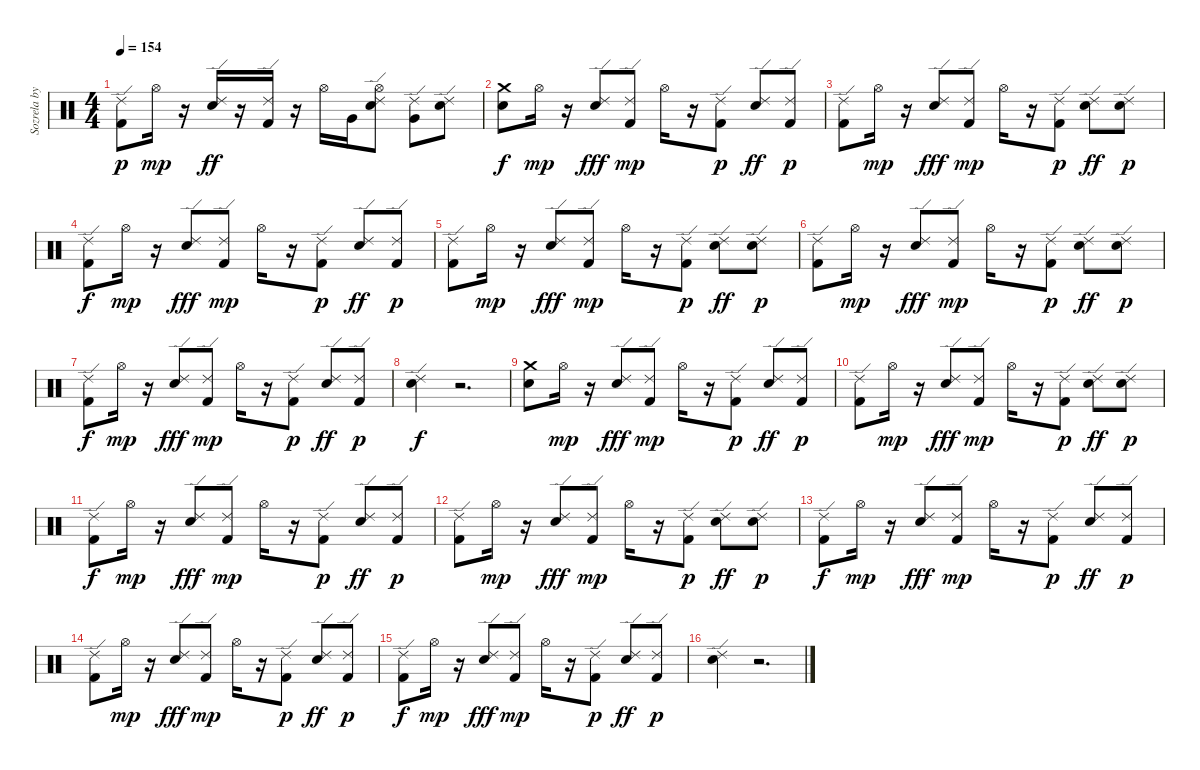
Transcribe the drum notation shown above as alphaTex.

\track ("Sozrela by Anton" "Sozrela by") {instrument percussion}
\staff {score}
\articulation defaults
\ts (4 4)
\tempo 154
\clef neutral
\ks c
("Kick (hit) 2" "Ride (edge) 2").8{dy p} "Hi-Hat (open)".16{dy mp} r.16 ("Snare (hit) 2" "Ride (edge) 2").16{dy ff} r.16 ("Kick (hit) 2" "Ride (edge) 2").16 r.16 "Hi-Hat (open)".16 "Very Low Tom (hit)".16 ("Hi-Hat (open)" "Ride (edge) 2" "Electric Snare (hit)").8 ("Ride (edge) 2" "Very Low Tom (hit)").8 ("Ride (edge) 2" "Electric Snare (hit)").8 |
("Electric Snare (hit)" "Crash medium (hit)").8{dy f} "Hi-Hat (open)".16{dy mp} r.16 ("Ride (edge) 2" "Snare (hit) 2").8{dy fff} ("Ride (edge) 2" "Kick (hit) 2").8{dy mp} "Hi-Hat (open)".16 r.16 ("Ride (edge) 2" "Kick (hit) 2").8{dy p} ("Ride (edge) 2" "Snare (hit) 2").8{dy ff} ("Ride (edge) 2" "Kick (hit) 2").8{dy p} |
("Kick (hit) 2" "Ride (edge) 2").8 "Hi-Hat (open)".16{dy mp} r.16 ("Ride (edge) 2" "Snare (hit) 2").8{dy fff} ("Ride (edge) 2" "Kick (hit) 2").8{dy mp} "Hi-Hat (open)".16 r.16 ("Ride (edge) 2" "Kick (hit) 2").8{dy p} ("Ride (edge) 2" "Snare (hit) 2").8{dy ff} ("Ride (edge) 2" "Snare (hit) 2").8{dy p} |
("Kick (hit) 2" "Ride (edge) 2").8{dy f} "Hi-Hat (open)".16{dy mp} r.16 ("Ride (edge) 2" "Snare (hit) 2").8{dy fff} ("Ride (edge) 2" "Kick (hit) 2").8{dy mp} "Hi-Hat (open)".16 r.16 ("Ride (edge) 2" "Kick (hit) 2").8{dy p} ("Ride (edge) 2" "Snare (hit) 2").8{dy ff} ("Ride (edge) 2" "Kick (hit) 2").8{dy p} |
("Kick (hit) 2" "Ride (edge) 2").8 "Hi-Hat (open)".16{dy mp} r.16 ("Ride (edge) 2" "Snare (hit) 2").8{dy fff} ("Ride (edge) 2" "Kick (hit) 2").8{dy mp} "Hi-Hat (open)".16 r.16 ("Ride (edge) 2" "Kick (hit) 2").8{dy p} ("Ride (edge) 2" "Snare (hit) 2").8{dy ff} ("Ride (edge) 2" "Snare (hit) 2").8{dy p} |
("Kick (hit) 2" "Ride (edge) 2").8 "Hi-Hat (open)".16{dy mp} r.16 ("Ride (edge) 2" "Snare (hit) 2").8{dy fff} ("Ride (edge) 2" "Kick (hit) 2").8{dy mp} "Hi-Hat (open)".16 r.16 ("Ride (edge) 2" "Kick (hit) 2").8{dy p} ("Ride (edge) 2" "Snare (hit) 2").8{dy ff} ("Ride (edge) 2" "Snare (hit) 2").8{dy p} |
("Kick (hit) 2" "Ride (edge) 2").8{dy f} "Hi-Hat (open)".16{dy mp} r.16 ("Ride (edge) 2" "Snare (hit) 2").8{dy fff} ("Ride (edge) 2" "Kick (hit) 2").8{dy mp} "Hi-Hat (open)".16 r.16 ("Ride (edge) 2" "Kick (hit) 2").8{dy p} ("Ride (edge) 2" "Snare (hit) 2").8{dy ff} ("Ride (edge) 2" "Kick (hit) 2").8{dy p} |
("Snare (hit) 2" "Ride (edge) 2").4{dy f} r.2{d} |
("Electric Snare (hit)" "Crash medium (hit)").8 "Hi-Hat (open)".16{dy mp} r.16 ("Ride (edge) 2" "Snare (hit) 2").8{dy fff} ("Ride (edge) 2" "Kick (hit) 2").8{dy mp} "Hi-Hat (open)".16 r.16 ("Ride (edge) 2" "Kick (hit) 2").8{dy p} ("Ride (edge) 2" "Snare (hit) 2").8{dy ff} ("Ride (edge) 2" "Kick (hit) 2").8{dy p} |
("Kick (hit) 2" "Ride (edge) 2").8 "Hi-Hat (open)".16{dy mp} r.16 ("Ride (edge) 2" "Snare (hit) 2").8{dy fff} ("Ride (edge) 2" "Kick (hit) 2").8{dy mp} "Hi-Hat (open)".16 r.16 ("Ride (edge) 2" "Kick (hit) 2").8{dy p} ("Ride (edge) 2" "Snare (hit) 2").8{dy ff} ("Ride (edge) 2" "Snare (hit) 2").8{dy p} |
("Kick (hit) 2" "Ride (edge) 2").8{dy f} "Hi-Hat (open)".16{dy mp} r.16 ("Ride (edge) 2" "Snare (hit) 2").8{dy fff} ("Ride (edge) 2" "Kick (hit) 2").8{dy mp} "Hi-Hat (open)".16 r.16 ("Ride (edge) 2" "Kick (hit) 2").8{dy p} ("Ride (edge) 2" "Snare (hit) 2").8{dy ff} ("Ride (edge) 2" "Kick (hit) 2").8{dy p} |
("Kick (hit) 2" "Ride (edge) 2").8 "Hi-Hat (open)".16{dy mp} r.16 ("Ride (edge) 2" "Snare (hit) 2").8{dy fff} ("Ride (edge) 2" "Kick (hit) 2").8{dy mp} "Hi-Hat (open)".16 r.16 ("Ride (edge) 2" "Kick (hit) 2").8{dy p} ("Ride (edge) 2" "Snare (hit) 2").8{dy ff} ("Ride (edge) 2" "Snare (hit) 2").8{dy p} |
("Kick (hit) 2" "Ride (edge) 2").8{dy f} "Hi-Hat (open)".16{dy mp} r.16 ("Ride (edge) 2" "Snare (hit) 2").8{dy fff} ("Ride (edge) 2" "Kick (hit) 2").8{dy mp} "Hi-Hat (open)".16 r.16 ("Ride (edge) 2" "Kick (hit) 2").8{dy p} ("Ride (edge) 2" "Snare (hit) 2").8{dy ff} ("Ride (edge) 2" "Kick (hit) 2").8{dy p} |
("Kick (hit) 2" "Ride (edge) 2").8 "Hi-Hat (open)".16{dy mp} r.16 ("Ride (edge) 2" "Snare (hit) 2").8{dy fff} ("Ride (edge) 2" "Kick (hit) 2").8{dy mp} "Hi-Hat (open)".16 r.16 ("Ride (edge) 2" "Kick (hit) 2").8{dy p} ("Ride (edge) 2" "Snare (hit) 2").8{dy ff} ("Ride (edge) 2" "Kick (hit) 2").8{dy p} |
("Kick (hit) 2" "Ride (edge) 2").8{dy f} "Hi-Hat (open)".16{dy mp} r.16 ("Ride (edge) 2" "Snare (hit) 2").8{dy fff} ("Ride (edge) 2" "Kick (hit) 2").8{dy mp} "Hi-Hat (open)".16 r.16 ("Ride (edge) 2" "Kick (hit) 2").8{dy p} ("Ride (edge) 2" "Snare (hit) 2").8{dy ff} ("Ride (edge) 2" "Kick (hit) 2").8{dy p} |
("Snare (hit) 2" "Ride (edge) 2").4 r.2{d}
